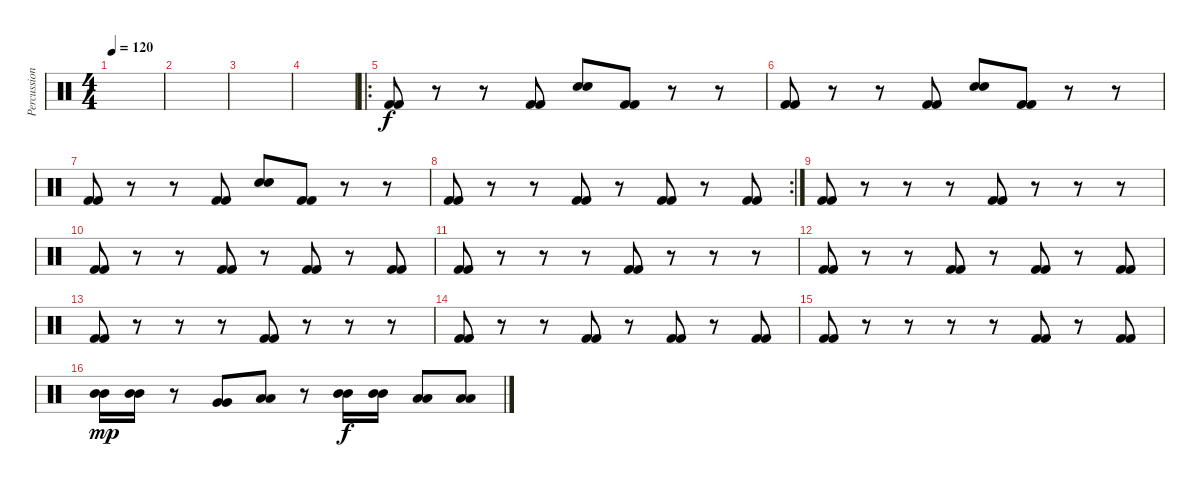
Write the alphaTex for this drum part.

\track ("Percussion" "Percussion") {instrument percussion}
\staff {score}
\articulation defaults
\ts (4 4)
\tempo 120
\clef neutral
\ks c
|
|
|
|
\ro
("Kick (hit) 2" "Kick (hit) 2").8 r.8 r.8 ("Kick (hit) 2" "Kick (hit) 2").8 ("Electric Snare (hit)" "Electric Snare (hit)").8 ("Kick (hit) 2" "Kick (hit) 2").8 r.8 r.8 |
("Kick (hit) 2" "Kick (hit) 2").8 r.8 r.8 ("Kick (hit) 2" "Kick (hit) 2").8 ("Electric Snare (hit)" "Electric Snare (hit)").8 ("Kick (hit) 2" "Kick (hit) 2").8 r.8 r.8 |
("Kick (hit) 2" "Kick (hit) 2").8 r.8 r.8 ("Kick (hit) 2" "Kick (hit) 2").8 ("Electric Snare (hit)" "Electric Snare (hit)").8 ("Kick (hit) 2" "Kick (hit) 2").8 r.8 r.8 |
\rc 2
("Kick (hit) 2" "Kick (hit) 2").8 r.8 r.8 ("Kick (hit) 2" "Kick (hit) 2").8 r.8 ("Kick (hit) 2" "Kick (hit) 2").8 r.8 ("Kick (hit) 2" "Kick (hit) 2").8 |
("Kick (hit) 2" "Kick (hit) 2").8 r.8 r.8 r.8 ("Kick (hit) 2" "Kick (hit) 2").8 r.8 r.8 r.8 |
("Kick (hit) 2" "Kick (hit) 2").8 r.8 r.8 ("Kick (hit) 2" "Kick (hit) 2").8 r.8 ("Kick (hit) 2" "Kick (hit) 2").8 r.8 ("Kick (hit) 2" "Kick (hit) 2").8 |
("Kick (hit) 2" "Kick (hit) 2").8 r.8 r.8 r.8 ("Kick (hit) 2" "Kick (hit) 2").8 r.8 r.8 r.8 |
("Kick (hit) 2" "Kick (hit) 2").8 r.8 r.8 ("Kick (hit) 2" "Kick (hit) 2").8 r.8 ("Kick (hit) 2" "Kick (hit) 2").8 r.8 ("Kick (hit) 2" "Kick (hit) 2").8 |
("Kick (hit) 2" "Kick (hit) 2").8 r.8 r.8 r.8 ("Kick (hit) 2" "Kick (hit) 2").8 r.8 r.8 r.8 |
("Kick (hit) 2" "Kick (hit) 2").8 r.8 r.8 ("Kick (hit) 2" "Kick (hit) 2").8 r.8 ("Kick (hit) 2" "Kick (hit) 2").8 r.8 ("Kick (hit) 2" "Kick (hit) 2").8 |
("Kick (hit) 2" "Kick (hit) 2").8 r.8 r.8 r.8 r.8 ("Kick (hit) 2" "Kick (hit) 2").8 r.8 ("Kick (hit) 2" "Kick (hit) 2").8 |
("Mid Tom (hit)" "Mid Tom (hit)").16{dy mp} ("Mid Tom (hit)" "Mid Tom (hit)").16 r.8 ("Very Low Tom (hit)" "Very Low Tom (hit)").8 ("Low Tom (hit)" "Low Tom (hit)").8 r.8 ("Mid Tom (hit)" "Mid Tom (hit)").16{dy f} ("Mid Tom (hit)" "Mid Tom (hit)").16 ("Low Tom (hit)" "Low Tom (hit)").8 ("Low Tom (hit)" "Low Tom (hit)").8
